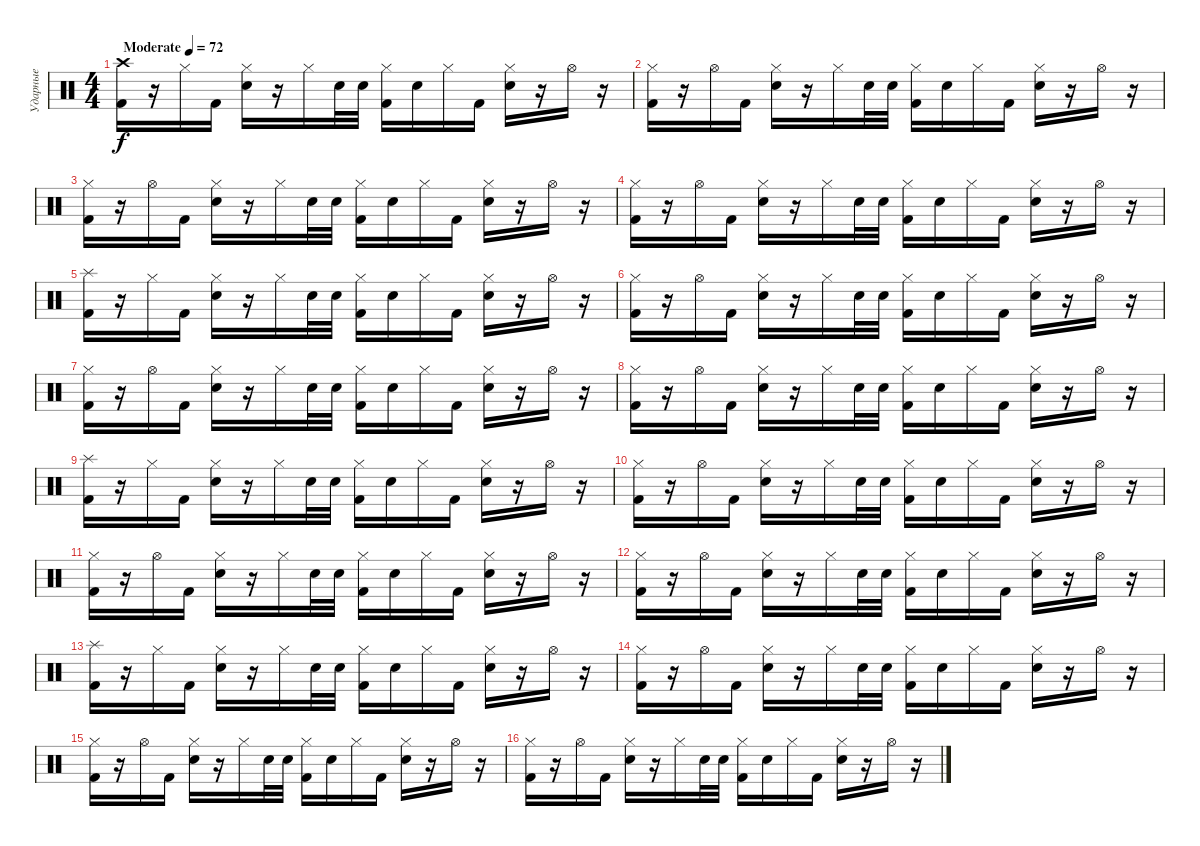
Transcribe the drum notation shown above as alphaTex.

\track ("Ударные" "Ударные") {instrument percussion}
\staff {score}
\articulation defaults
\ts (4 4)
\tempo (72 "Moderate")
\clef neutral
\ks c
("Crash high (hit)" "Kick (hit) 2").16{dy f} r.16 "Hi-Hat (closed)".16 "Kick (hit) 2".16 ("Hi-Hat (closed)" "Electric Snare (hit)").16 r.16 "Hi-Hat (closed)".16 "Electric Snare (hit)".32 "Electric Snare (hit)".32 ("Hi-Hat (closed)" "Kick (hit) 2").16 "Electric Snare (hit)".16 "Hi-Hat (closed)".16 "Kick (hit) 2".16 ("Hi-Hat (closed)" "Electric Snare (hit)").16 r.16 "Hi-Hat (open)".16 r.16 |
("Hi-Hat (closed)" "Kick (hit) 2").16 r.16 "Hi-Hat (open)".16 "Kick (hit) 2".16 ("Hi-Hat (closed)" "Electric Snare (hit)").16 r.16 "Hi-Hat (closed)".16 "Electric Snare (hit)".32 "Electric Snare (hit)".32 ("Hi-Hat (closed)" "Kick (hit) 2").16 "Electric Snare (hit)".16 "Hi-Hat (closed)".16 "Kick (hit) 2".16 ("Hi-Hat (closed)" "Electric Snare (hit)").16 r.16 "Hi-Hat (open)".16 r.16 |
("Hi-Hat (closed)" "Kick (hit) 2").16 r.16 "Hi-Hat (open)".16 "Kick (hit) 2".16 ("Hi-Hat (closed)" "Electric Snare (hit)").16 r.16 "Hi-Hat (closed)".16 "Electric Snare (hit)".32 "Electric Snare (hit)".32 ("Hi-Hat (closed)" "Kick (hit) 2").16 "Electric Snare (hit)".16 "Hi-Hat (closed)".16 "Kick (hit) 2".16 ("Hi-Hat (closed)" "Electric Snare (hit)").16 r.16 "Hi-Hat (open)".16 r.16 |
("Hi-Hat (closed)" "Kick (hit) 2").16 r.16 "Hi-Hat (open)".16 "Kick (hit) 2".16 ("Hi-Hat (closed)" "Electric Snare (hit)").16 r.16 "Hi-Hat (closed)".16 "Electric Snare (hit)".32 "Electric Snare (hit)".32 ("Hi-Hat (closed)" "Kick (hit) 2").16 "Electric Snare (hit)".16 "Hi-Hat (closed)".16 "Kick (hit) 2".16 ("Hi-Hat (closed)" "Electric Snare (hit)").16 r.16 "Hi-Hat (open)".16 r.16 |
("Splash (hit)" "Kick (hit) 2").16 r.16 "Hi-Hat (closed)".16 "Kick (hit) 2".16 ("Hi-Hat (closed)" "Electric Snare (hit)").16 r.16 "Hi-Hat (closed)".16 "Electric Snare (hit)".32 "Electric Snare (hit)".32 ("Hi-Hat (closed)" "Kick (hit) 2").16 "Electric Snare (hit)".16 "Hi-Hat (closed)".16 "Kick (hit) 2".16 ("Hi-Hat (closed)" "Electric Snare (hit)").16 r.16 "Hi-Hat (open)".16 r.16 |
("Hi-Hat (closed)" "Kick (hit) 2").16 r.16 "Hi-Hat (open)".16 "Kick (hit) 2".16 ("Hi-Hat (closed)" "Electric Snare (hit)").16 r.16 "Hi-Hat (closed)".16 "Electric Snare (hit)".32 "Electric Snare (hit)".32 ("Hi-Hat (closed)" "Kick (hit) 2").16 "Electric Snare (hit)".16 "Hi-Hat (closed)".16 "Kick (hit) 2".16 ("Hi-Hat (closed)" "Electric Snare (hit)").16 r.16 "Hi-Hat (open)".16 r.16 |
("Hi-Hat (closed)" "Kick (hit) 2").16 r.16 "Hi-Hat (open)".16 "Kick (hit) 2".16 ("Hi-Hat (closed)" "Electric Snare (hit)").16 r.16 "Hi-Hat (closed)".16 "Electric Snare (hit)".32 "Electric Snare (hit)".32 ("Hi-Hat (closed)" "Kick (hit) 2").16 "Electric Snare (hit)".16 "Hi-Hat (closed)".16 "Kick (hit) 2".16 ("Hi-Hat (closed)" "Electric Snare (hit)").16 r.16 "Hi-Hat (open)".16 r.16 |
("Hi-Hat (closed)" "Kick (hit) 2").16 r.16 "Hi-Hat (open)".16 "Kick (hit) 2".16 ("Hi-Hat (closed)" "Electric Snare (hit)").16 r.16 "Hi-Hat (closed)".16 "Electric Snare (hit)".32 "Electric Snare (hit)".32 ("Hi-Hat (closed)" "Kick (hit) 2").16 "Electric Snare (hit)".16 "Hi-Hat (closed)".16 "Kick (hit) 2".16 ("Hi-Hat (closed)" "Electric Snare (hit)").16 r.16 "Hi-Hat (open)".16 r.16 |
("Splash (hit)" "Kick (hit) 2").16 r.16 "Hi-Hat (closed)".16 "Kick (hit) 2".16 ("Hi-Hat (closed)" "Electric Snare (hit)").16 r.16 "Hi-Hat (closed)".16 "Electric Snare (hit)".32 "Electric Snare (hit)".32 ("Hi-Hat (closed)" "Kick (hit) 2").16 "Electric Snare (hit)".16 "Hi-Hat (closed)".16 "Kick (hit) 2".16 ("Hi-Hat (closed)" "Electric Snare (hit)").16 r.16 "Hi-Hat (open)".16 r.16 |
("Hi-Hat (closed)" "Kick (hit) 2").16 r.16 "Hi-Hat (open)".16 "Kick (hit) 2".16 ("Hi-Hat (closed)" "Electric Snare (hit)").16 r.16 "Hi-Hat (closed)".16 "Electric Snare (hit)".32 "Electric Snare (hit)".32 ("Hi-Hat (closed)" "Kick (hit) 2").16 "Electric Snare (hit)".16 "Hi-Hat (closed)".16 "Kick (hit) 2".16 ("Hi-Hat (closed)" "Electric Snare (hit)").16 r.16 "Hi-Hat (open)".16 r.16 |
("Hi-Hat (closed)" "Kick (hit) 2").16 r.16 "Hi-Hat (open)".16 "Kick (hit) 2".16 ("Hi-Hat (closed)" "Electric Snare (hit)").16 r.16 "Hi-Hat (closed)".16 "Electric Snare (hit)".32 "Electric Snare (hit)".32 ("Hi-Hat (closed)" "Kick (hit) 2").16 "Electric Snare (hit)".16 "Hi-Hat (closed)".16 "Kick (hit) 2".16 ("Hi-Hat (closed)" "Electric Snare (hit)").16 r.16 "Hi-Hat (open)".16 r.16 |
("Hi-Hat (closed)" "Kick (hit) 2").16 r.16 "Hi-Hat (open)".16 "Kick (hit) 2".16 ("Hi-Hat (closed)" "Electric Snare (hit)").16 r.16 "Hi-Hat (closed)".16 "Electric Snare (hit)".32 "Electric Snare (hit)".32 ("Hi-Hat (closed)" "Kick (hit) 2").16 "Electric Snare (hit)".16 "Hi-Hat (closed)".16 "Kick (hit) 2".16 ("Hi-Hat (closed)" "Electric Snare (hit)").16 r.16 "Hi-Hat (open)".16 r.16 |
("Splash (hit)" "Kick (hit) 2").16 r.16 "Hi-Hat (closed)".16 "Kick (hit) 2".16 ("Hi-Hat (closed)" "Electric Snare (hit)").16 r.16 "Hi-Hat (closed)".16 "Electric Snare (hit)".32 "Electric Snare (hit)".32 ("Hi-Hat (closed)" "Kick (hit) 2").16 "Electric Snare (hit)".16 "Hi-Hat (closed)".16 "Kick (hit) 2".16 ("Hi-Hat (closed)" "Electric Snare (hit)").16 r.16 "Hi-Hat (open)".16 r.16 |
("Hi-Hat (closed)" "Kick (hit) 2").16 r.16 "Hi-Hat (open)".16 "Kick (hit) 2".16 ("Hi-Hat (closed)" "Electric Snare (hit)").16 r.16 "Hi-Hat (closed)".16 "Electric Snare (hit)".32 "Electric Snare (hit)".32 ("Hi-Hat (closed)" "Kick (hit) 2").16 "Electric Snare (hit)".16 "Hi-Hat (closed)".16 "Kick (hit) 2".16 ("Hi-Hat (closed)" "Electric Snare (hit)").16 r.16 "Hi-Hat (open)".16 r.16 |
("Hi-Hat (closed)" "Kick (hit) 2").16 r.16 "Hi-Hat (open)".16 "Kick (hit) 2".16 ("Hi-Hat (closed)" "Electric Snare (hit)").16 r.16 "Hi-Hat (closed)".16 "Electric Snare (hit)".32 "Electric Snare (hit)".32 ("Hi-Hat (closed)" "Kick (hit) 2").16 "Electric Snare (hit)".16 "Hi-Hat (closed)".16 "Kick (hit) 2".16 ("Hi-Hat (closed)" "Electric Snare (hit)").16 r.16 "Hi-Hat (open)".16 r.16 |
("Hi-Hat (closed)" "Kick (hit) 2").16 r.16 "Hi-Hat (open)".16 "Kick (hit) 2".16 ("Hi-Hat (closed)" "Electric Snare (hit)").16 r.16 "Hi-Hat (closed)".16 "Electric Snare (hit)".32 "Electric Snare (hit)".32 ("Hi-Hat (closed)" "Kick (hit) 2").16 "Electric Snare (hit)".16 "Hi-Hat (closed)".16 "Kick (hit) 2".16 ("Hi-Hat (closed)" "Electric Snare (hit)").16 r.16 "Hi-Hat (open)".16 r.16
